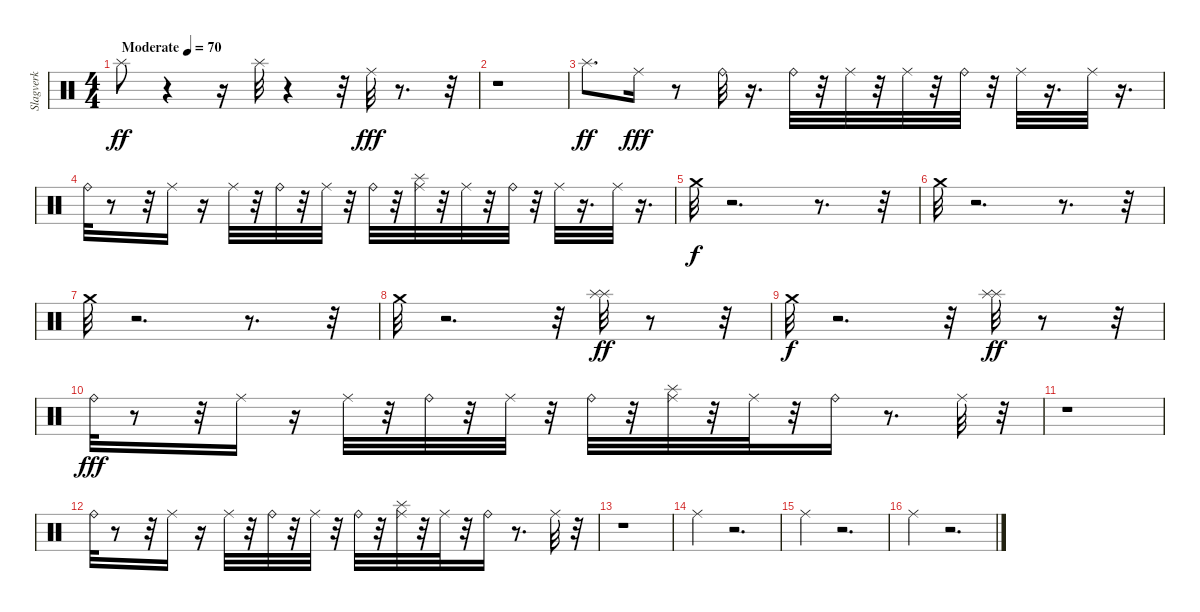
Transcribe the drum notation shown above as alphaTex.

\track ("Slagverk" "Slagverk") {instrument percussion}
\staff {score}
\articulation defaults
\ts (4 4)
\tempo (70 "Moderate")
\clef neutral
\ks c "Splash (hit)".8{dy ff}
r.4 r.16 "Splash (hit)".32 r.4 r.32 "Ride (middle)".32{dy fff} r.8{d} r.32 |
r.1 |
"Splash (hit)".8{d dy ff} "Ride (middle)".16{dy fff} r.8 "Ride (bell)".32 r.16{d} "Ride (bell)".32 r.32 "Ride (middle)".32 r.32 "Ride (middle)".32 r.32 "Ride (bell)".32 r.32 "Ride (middle)".32 r.16{d} "Ride (middle)".32 r.16{d} |
"Ride (bell)".32 r.8 r.32 "Ride (middle)".16 r.16 "Ride (middle)".32 r.32 "Ride (bell)".32 r.32 "Ride (middle)".32 r.32 "Ride (bell)".32 r.32 ("Ride (middle)" "Splash (hit)").32 r.32 "Ride (middle)".32 r.32 "Ride (bell)".32 r.32 "Ride (middle)".32 r.16{d} "Ride (middle)".32 r.16{d} |
"Crash medium (hit)".32{dy f} r.2{d} r.8{d} r.32 |
"Crash medium (hit)".32 r.2{d} r.8{d} r.32 |
"Crash medium (hit)".32 r.2{d} r.8{d} r.32 |
"Crash medium (hit)".32 r.2{d} r.32 ("Splash (hit)" "Splash (hit)").32{dy ff} r.8 r.32 |
"Crash medium (hit)".32{dy f} r.2{d} r.32 ("Splash (hit)" "Splash (hit)").32{dy ff} r.8 r.32 |
"Ride (bell)".32{dy fff} r.8 r.32 "Ride (middle)".16 r.16 "Ride (middle)".32 r.32 "Ride (bell)".32 r.32 "Ride (middle)".32 r.32 "Ride (bell)".32 r.32 ("Ride (middle)" "Splash (hit)").32 r.32 "Ride (middle)".32 r.32 "Ride (bell)".16 r.8{d} "Ride (middle)".32 r.32 |
r.1 |
"Ride (bell)".32 r.8 r.32 "Ride (middle)".16 r.16 "Ride (middle)".32 r.32 "Ride (bell)".32 r.32 "Ride (middle)".32 r.32 "Ride (bell)".32 r.32 ("Ride (middle)" "Splash (hit)").32 r.32 "Ride (middle)".32 r.32 "Ride (bell)".16 r.8{d} "Ride (middle)".32 r.32 |
r.1 |
"Ride (middle)".4 r.2{d} |
"Ride (middle)".4 r.2{d} |
"Ride (middle)".4 r.2{d}
